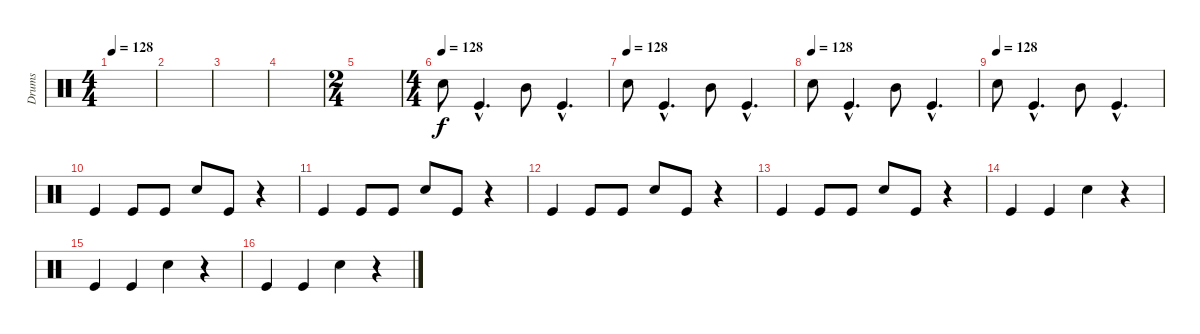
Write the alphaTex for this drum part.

\track ("Drums" "Drums") {instrument percussion}
\staff {score}
\articulation defaults
\ts (4 4)
\tempo 128
\clef neutral
\ks c
|
|
|
|
\ts (2 4)
|
\ts (4 4)
\tempo (128)
"Snare (hit) 2".8 "Kick (hit)"{hac}.4{d} "Mid Tom (hit)".8 "Kick (hit)"{hac}.4{d} |
\tempo (128)
"Snare (hit) 2".8 "Kick (hit)"{hac}.4{d} "Mid Tom (hit)".8 "Kick (hit)"{hac}.4{d} |
\tempo (128)
"Snare (hit) 2".8 "Kick (hit)"{hac}.4{d} "Mid Tom (hit)".8 "Kick (hit)"{hac}.4{d} |
\tempo (128)
"Snare (hit) 2".8 "Kick (hit)"{hac}.4{d} "Mid Tom (hit)".8 "Kick (hit)"{hac}.4{d} |
"Kick (hit)".4 "Kick (hit)".8 "Kick (hit)".8 "Snare (hit) 2".8 "Kick (hit)".8 r.4 |
"Kick (hit)".4 "Kick (hit)".8 "Kick (hit)".8 "Snare (hit) 2".8 "Kick (hit)".8 r.4 |
"Kick (hit)".4 "Kick (hit)".8 "Kick (hit)".8 "Snare (hit) 2".8 "Kick (hit)".8 r.4 |
"Kick (hit)".4 "Kick (hit)".8 "Kick (hit)".8 "Snare (hit) 2".8 "Kick (hit)".8 r.4 |
"Kick (hit)".4 "Kick (hit)".4 "Snare (hit) 2".4 r.4 |
"Kick (hit)".4 "Kick (hit)".4 "Snare (hit) 2".4 r.4 |
"Kick (hit)".4 "Kick (hit)".4 "Snare (hit) 2".4 r.4
